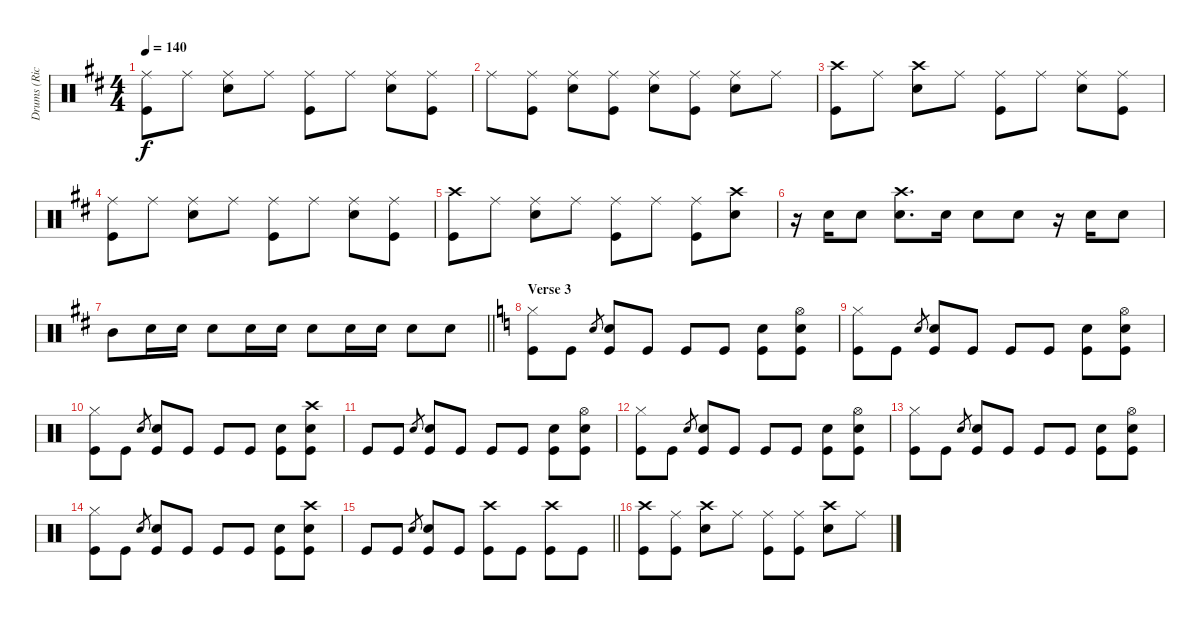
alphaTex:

\track ("Drums (Rick)" "Drums (Ric") {instrument percussion}
\staff {score}
\articulation defaults
\ts (4 4)
\tempo 140
\clef neutral
\ks bminor
("Ride (middle)" "Kick (hit)").8{dy f} "Ride (middle)".8 ("Ride (middle)" "Snare (hit) 2").8 "Ride (middle)".8 ("Ride (middle)" "Kick (hit)").8 "Ride (middle)".8 ("Ride (middle)" "Snare (hit) 2").8 ("Ride (middle)" "Kick (hit)").8 |
"Ride (middle)".8 ("Ride (middle)" "Kick (hit)").8 ("Ride (middle)" "Snare (hit) 2").8 ("Ride (middle)" "Kick (hit)").8 ("Ride (middle)" "Snare (hit) 2").8 ("Ride (middle)" "Kick (hit)").8 ("Ride (middle)" "Snare (hit) 2").8 "Ride (middle)".8 |
("Crash high (hit)" "Kick (hit)").8 "Ride (middle)".8 ("Crash high (hit)" "Snare (hit) 2").8 "Ride (middle)".8 ("Ride (middle)" "Kick (hit)").8 "Ride (middle)".8 ("Ride (middle)" "Snare (hit) 2").8 ("Ride (middle)" "Kick (hit)").8 |
("Ride (middle)" "Kick (hit)").8 "Ride (middle)".8 ("Ride (middle)" "Snare (hit) 2").8 "Ride (middle)".8 ("Ride (middle)" "Kick (hit)").8 "Ride (middle)".8 ("Ride (middle)" "Snare (hit) 2").8 ("Ride (middle)" "Kick (hit)").8 |
("Crash high (hit)" "Kick (hit)").8 "Ride (middle)".8 ("Ride (middle)" "Snare (hit) 2").8 "Ride (middle)".8 ("Ride (middle)" "Kick (hit)").8 "Ride (middle)".8 ("Ride (middle)" "Kick (hit)").8 ("Crash high (hit)" "Snare (hit) 2").8 |
r.16 "Snare (hit) 2".16 "Snare (hit) 2".8 ("Crash high (hit)" "Snare (hit) 2").8{d} "Snare (hit) 2".16 "Snare (hit) 2".8 "Snare (hit) 2".8 r.16 "Snare (hit) 2".16 "Snare (hit) 2".8 |
\barLineRight lightlight "Mid Tom (hit)".8 "Snare (hit) 2".16 "Snare (hit) 2".16 "Snare (hit) 2".8 "Snare (hit) 2".16 "Snare (hit) 2".16 "Snare (hit) 2".8 "Snare (hit) 2".16 "Snare (hit) 2".16 "Snare (hit) 2".8 "Snare (hit) 2".8
|
\section ("" "Verse 3")
\ks aminor
("Hi-Hat (closed)" "Kick (hit)").8 "Kick (hit)".8 "Snare (hit) 2".8{gr} ("Snare (hit) 2" "Kick (hit)").8 "Kick (hit)".8 "Kick (hit)".8 "Kick (hit)".8 ("Snare (hit) 2" "Kick (hit)").8 ("Hi-Hat (open)" "Snare (hit) 2" "Kick (hit)").8 |
("Hi-Hat (closed)" "Kick (hit)").8 "Kick (hit)".8 "Snare (hit) 2".8{gr} ("Snare (hit) 2" "Kick (hit)").8 "Kick (hit)".8 "Kick (hit)".8 "Kick (hit)".8 ("Snare (hit) 2" "Kick (hit)").8 ("Hi-Hat (open)" "Snare (hit) 2" "Kick (hit)").8 |
("Hi-Hat (closed)" "Kick (hit)").8 "Kick (hit)".8 "Snare (hit) 2".8{gr} ("Snare (hit) 2" "Kick (hit)").8 "Kick (hit)".8 "Kick (hit)".8 "Kick (hit)".8 ("Snare (hit) 2" "Kick (hit)").8 ("Crash high (hit)" "Snare (hit) 2" "Kick (hit)").8 |
"Kick (hit)".8 "Kick (hit)".8 "Snare (hit) 2".8{gr} ("Snare (hit) 2" "Kick (hit)").8 "Kick (hit)".8 "Kick (hit)".8 "Kick (hit)".8 ("Snare (hit) 2" "Kick (hit)").8 ("Hi-Hat (open)" "Snare (hit) 2" "Kick (hit)").8 |
("Hi-Hat (closed)" "Kick (hit)").8 "Kick (hit)".8 "Snare (hit) 2".8{gr} ("Snare (hit) 2" "Kick (hit)").8 "Kick (hit)".8 "Kick (hit)".8 "Kick (hit)".8 ("Snare (hit) 2" "Kick (hit)").8 ("Hi-Hat (open)" "Snare (hit) 2" "Kick (hit)").8 |
("Hi-Hat (closed)" "Kick (hit)").8 "Kick (hit)".8 "Snare (hit) 2".8{gr} ("Snare (hit) 2" "Kick (hit)").8 "Kick (hit)".8 "Kick (hit)".8 "Kick (hit)".8 ("Snare (hit) 2" "Kick (hit)").8 ("Hi-Hat (open)" "Snare (hit) 2" "Kick (hit)").8 |
("Hi-Hat (closed)" "Kick (hit)").8 "Kick (hit)".8 "Snare (hit) 2".8{gr} ("Snare (hit) 2" "Kick (hit)").8 "Kick (hit)".8 "Kick (hit)".8 "Kick (hit)".8 ("Snare (hit) 2" "Kick (hit)").8 ("Crash high (hit)" "Snare (hit) 2" "Kick (hit)").8 |
\barLineRight lightlight "Kick (hit)".8 "Kick (hit)".8 "Snare (hit) 2".8{gr}
("Snare (hit) 2" "Kick (hit)").8 "Kick (hit)".8 ("Crash high (hit)" "Kick (hit)").8 "Kick (hit)".8 ("Crash high (hit)" "Kick (hit)").8 "Kick (hit)".8 |
("Crash high (hit)" "Kick (hit)").8 ("Ride (middle)" "Kick (hit)").8 ("Crash high (hit)" "Snare (hit) 2").8 "Ride (middle)".8 ("Ride (middle)" "Kick (hit)").8 ("Ride (middle)" "Kick (hit)").8 ("Crash high (hit)" "Snare (hit) 2").8 "Ride (middle)".8
